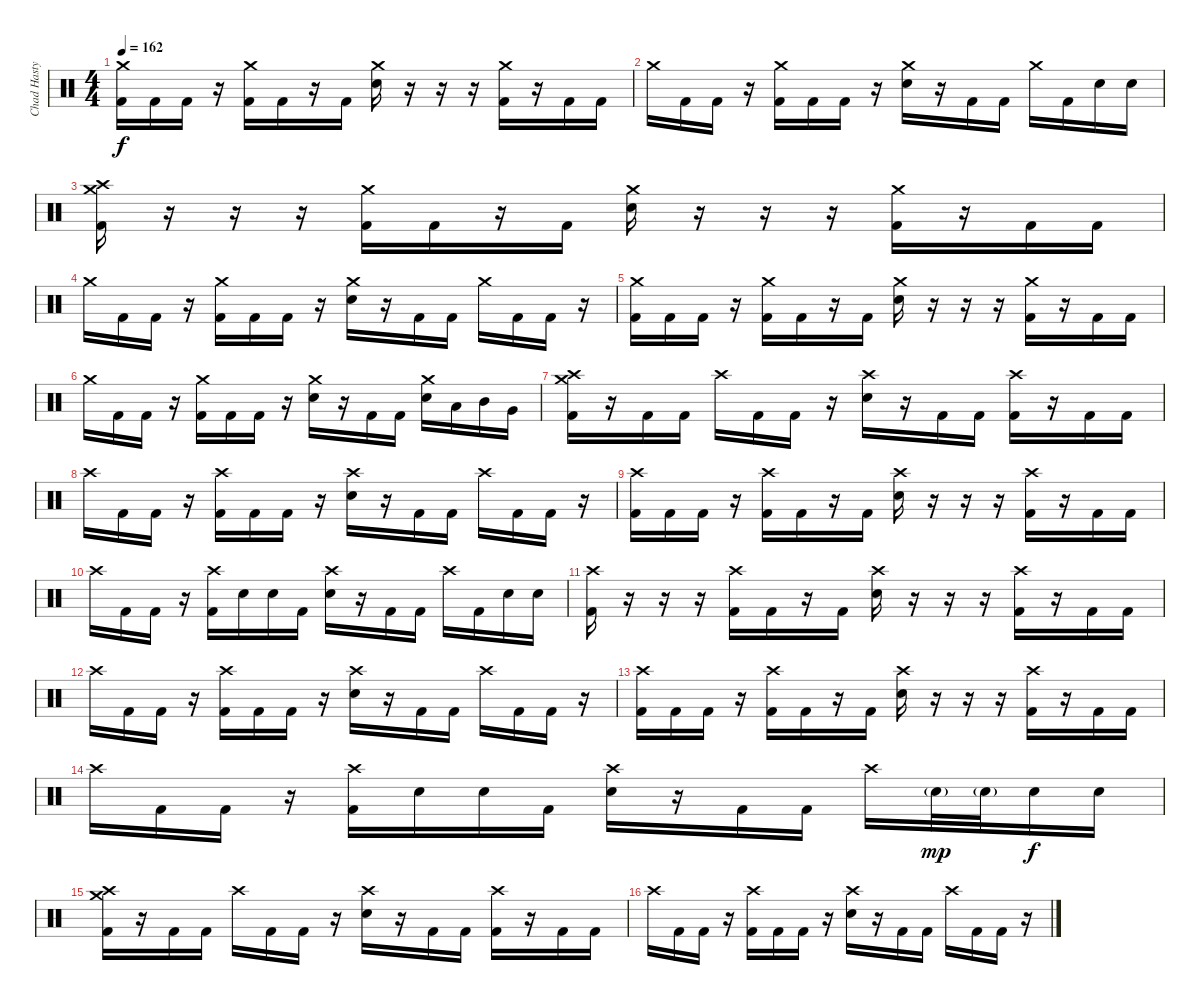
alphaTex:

\track ("Chad Hasty" "Chad Hasty") {instrument percussion}
\staff {score}
\articulation defaults
\ts (4 4)
\tempo 162
\clef neutral
\ks c
("Crash medium (hit)" "Kick (hit) 2").16{dy f} "Kick (hit) 2".16 "Kick (hit) 2".16 r.16 ("Crash medium (hit)" "Kick (hit) 2").16 "Kick (hit) 2".16 r.16 "Kick (hit) 2".16 ("Crash medium (hit)" "Snare (hit) 2").16 r.16 r.16 r.16 ("Crash medium (hit)" "Kick (hit) 2").16 r.16 "Kick (hit) 2".16 "Kick (hit) 2".16 |
"Crash medium (hit)".16 "Kick (hit) 2".16 "Kick (hit) 2".16 r.16 ("Crash medium (hit)" "Kick (hit) 2").16 "Kick (hit) 2".16 "Kick (hit) 2".16 r.16 ("Crash medium (hit)" "Snare (hit) 2").16 r.16 "Kick (hit) 2".16 "Kick (hit) 2".16 "Crash medium (hit)".16 "Kick (hit) 2".16 "Snare (hit) 2".16 "Snare (hit) 2".16 |
("Crash medium (hit)" "Crash high (hit)" "Kick (hit) 2").16 r.16 r.16 r.16 ("Crash medium (hit)" "Kick (hit) 2").16 "Kick (hit) 2".16 r.16 "Kick (hit) 2".16 ("Crash medium (hit)" "Snare (hit) 2").16 r.16 r.16 r.16 ("Crash medium (hit)" "Kick (hit) 2").16 r.16 "Kick (hit) 2".16 "Kick (hit) 2".16 |
"Crash medium (hit)".16 "Kick (hit) 2".16 "Kick (hit) 2".16 r.16 ("Crash medium (hit)" "Kick (hit) 2").16 "Kick (hit) 2".16 "Kick (hit) 2".16 r.16 ("Crash medium (hit)" "Snare (hit) 2").16 r.16 "Kick (hit) 2".16 "Kick (hit) 2".16 "Crash medium (hit)".16 "Kick (hit) 2".16 "Kick (hit) 2".16 r.16 |
("Crash medium (hit)" "Kick (hit) 2").16 "Kick (hit) 2".16 "Kick (hit) 2".16 r.16 ("Crash medium (hit)" "Kick (hit) 2").16 "Kick (hit) 2".16 r.16 "Kick (hit) 2".16 ("Crash medium (hit)" "Snare (hit) 2").16 r.16 r.16 r.16 ("Crash medium (hit)" "Kick (hit) 2").16 r.16 "Kick (hit) 2".16 "Kick (hit) 2".16 |
"Crash medium (hit)".16 "Kick (hit) 2".16 "Kick (hit) 2".16 r.16 ("Crash medium (hit)" "Kick (hit) 2").16 "Kick (hit) 2".16 "Kick (hit) 2".16 r.16 ("Crash medium (hit)" "Snare (hit) 2").16 r.16 "Kick (hit) 2".16 "Kick (hit) 2".16 ("Crash medium (hit)" "Snare (hit) 2").16 "Low Tom (hit)".16 "Mid Tom (hit)".16 "Very Low Tom (hit)".16 |
("Crash medium (hit)" "Crash high (hit)" "Kick (hit) 2").16 r.16 "Kick (hit) 2".16 "Kick (hit) 2".16 "Crash high (hit)".16 "Kick (hit) 2".16 "Kick (hit) 2".16 r.16 ("Crash high (hit)" "Snare (hit) 2").16 r.16 "Kick (hit) 2".16 "Kick (hit) 2".16 ("Crash high (hit)" "Kick (hit) 2").16 r.16 "Kick (hit) 2".16 "Kick (hit) 2".16 |
"Crash high (hit)".16 "Kick (hit) 2".16 "Kick (hit) 2".16 r.16 ("Crash high (hit)" "Kick (hit) 2").16 "Kick (hit) 2".16 "Kick (hit) 2".16 r.16 ("Crash high (hit)" "Snare (hit) 2").16 r.16 "Kick (hit) 2".16 "Kick (hit) 2".16 "Crash high (hit)".16 "Kick (hit) 2".16 "Kick (hit) 2".16 r.16 |
("Crash high (hit)" "Kick (hit) 2").16 "Kick (hit) 2".16 "Kick (hit) 2".16 r.16 ("Crash high (hit)" "Kick (hit) 2").16 "Kick (hit) 2".16 r.16 "Kick (hit) 2".16 ("Crash high (hit)" "Snare (hit) 2").16 r.16 r.16 r.16 ("Crash high (hit)" "Kick (hit) 2").16 r.16 "Kick (hit) 2".16 "Kick (hit) 2".16 |
"Crash high (hit)".16 "Kick (hit) 2".16 "Kick (hit) 2".16 r.16 ("Crash high (hit)" "Kick (hit) 2").16 "Snare (hit) 2".16 "Snare (hit) 2".16 "Kick (hit) 2".16 ("Crash high (hit)" "Snare (hit) 2").16 r.16 "Kick (hit) 2".16 "Kick (hit) 2".16 "Crash high (hit)".16 "Kick (hit) 2".16 "Snare (hit) 2".16 "Snare (hit) 2".16 |
("Crash high (hit)" "Kick (hit) 2").16 r.16 r.16 r.16 ("Crash high (hit)" "Kick (hit) 2").16 "Kick (hit) 2".16 r.16 "Kick (hit) 2".16 ("Crash high (hit)" "Snare (hit) 2").16 r.16 r.16 r.16 ("Crash high (hit)" "Kick (hit) 2").16 r.16 "Kick (hit) 2".16 "Kick (hit) 2".16 |
"Crash high (hit)".16 "Kick (hit) 2".16 "Kick (hit) 2".16 r.16 ("Crash high (hit)" "Kick (hit) 2").16 "Kick (hit) 2".16 "Kick (hit) 2".16 r.16 ("Crash high (hit)" "Snare (hit) 2").16 r.16 "Kick (hit) 2".16 "Kick (hit) 2".16 "Crash high (hit)".16 "Kick (hit) 2".16 "Kick (hit) 2".16 r.16 |
("Crash high (hit)" "Kick (hit) 2").16 "Kick (hit) 2".16 "Kick (hit) 2".16 r.16 ("Crash high (hit)" "Kick (hit) 2").16 "Kick (hit) 2".16 r.16 "Kick (hit) 2".16 ("Crash high (hit)" "Snare (hit) 2").16 r.16 r.16 r.16 ("Crash high (hit)" "Kick (hit) 2").16 r.16 "Kick (hit) 2".16 "Kick (hit) 2".16 |
"Crash high (hit)".16 "Kick (hit) 2".16 "Kick (hit) 2".16 r.16 ("Crash high (hit)" "Kick (hit) 2").16 "Snare (hit) 2".16 "Snare (hit) 2".16 "Kick (hit) 2".16 ("Crash high (hit)" "Snare (hit) 2").16 r.16 "Kick (hit) 2".16 "Kick (hit) 2".16 "Crash high (hit)".16 "Snare (hit) 2"{g}.32{dy mp} "Snare (hit) 2"{g}.32 "Snare (hit) 2".16{dy f} "Snare (hit) 2".16 |
("Crash medium (hit)" "Crash high (hit)" "Kick (hit) 2").16 r.16 "Kick (hit) 2".16 "Kick (hit) 2".16 "Crash high (hit)".16 "Kick (hit) 2".16 "Kick (hit) 2".16 r.16 ("Crash high (hit)" "Snare (hit) 2").16 r.16 "Kick (hit) 2".16 "Kick (hit) 2".16 ("Crash high (hit)" "Kick (hit) 2").16 r.16 "Kick (hit) 2".16 "Kick (hit) 2".16 |
"Crash high (hit)".16 "Kick (hit) 2".16 "Kick (hit) 2".16 r.16 ("Crash high (hit)" "Kick (hit) 2").16 "Kick (hit) 2".16 "Kick (hit) 2".16 r.16 ("Crash high (hit)" "Snare (hit) 2").16 r.16 "Kick (hit) 2".16 "Kick (hit) 2".16 "Crash high (hit)".16 "Kick (hit) 2".16 "Kick (hit) 2".16 r.16
